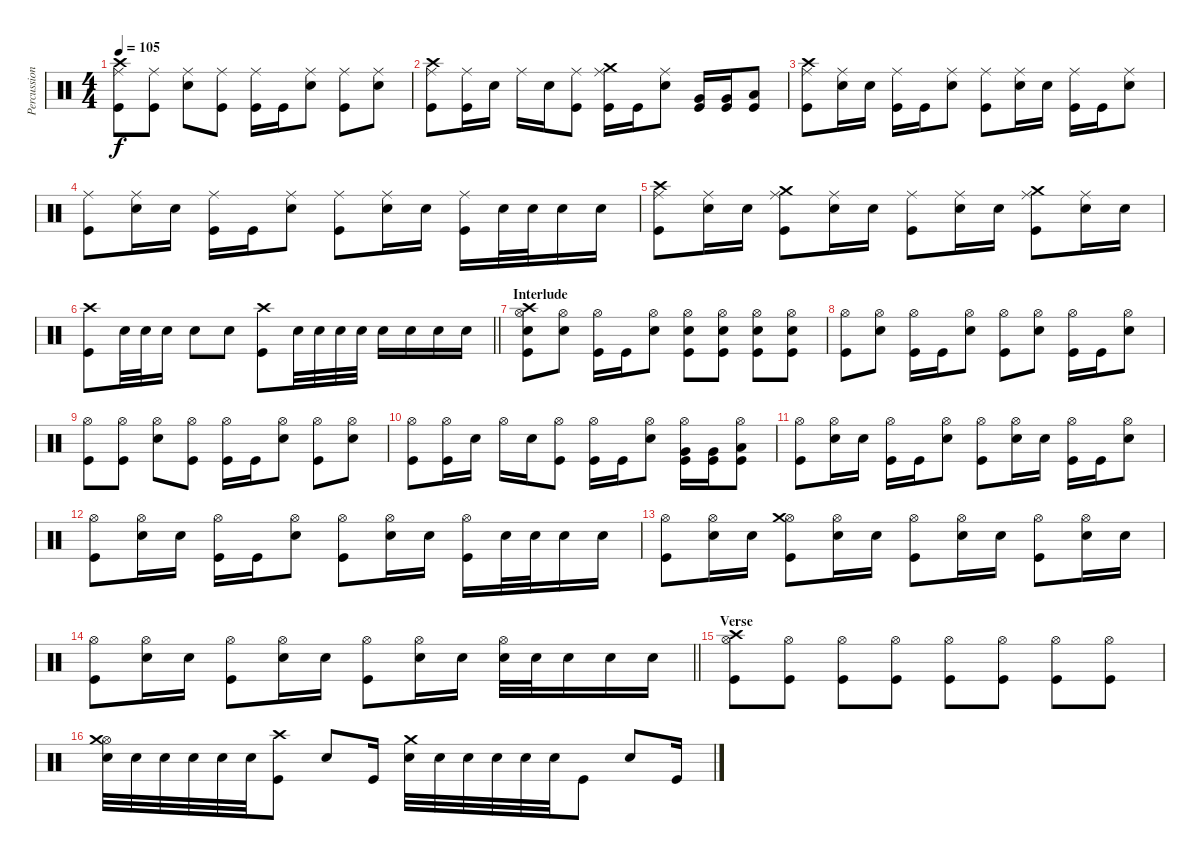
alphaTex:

\track ("Percussion" "Percussion") {instrument percussion}
\staff {score}
\articulation defaults
\ts (4 4)
\tempo 105
\clef neutral
\ks c
("Kick (hit)" "Ride (middle)" "Crash high (hit)").8{dy f} ("Kick (hit)" "Ride (middle)").8 ("Electric Snare (hit)" "Ride (middle)").8 ("Kick (hit)" "Ride (middle)").8 ("Kick (hit)" "Ride (middle)").16 "Kick (hit)".16 ("Electric Snare (hit)" "Ride (middle)").8 ("Kick (hit)" "Ride (middle)").8 ("Electric Snare (hit)" "Ride (middle)").8 |
("Kick (hit)" "Ride (middle)" "Crash high (hit)").8 ("Kick (hit)" "Ride (middle)").16 "Electric Snare (hit)".16 "Ride (middle)".16 "Electric Snare (hit)".16 ("Kick (hit)" "Ride (middle)").8 ("Kick (hit)" "Ride (middle)" "Crash medium (hit)").16 "Kick (hit)".16 ("Electric Snare (hit)" "Ride (middle)").8 ("Kick (hit)" "Very Low Tom (hit)").16 ("Kick (hit)" "Very Low Tom (hit)").16 ("Kick (hit)" "Low Floor Tom (hit)").8 |
("Kick (hit)" "Ride (middle)" "Crash high (hit)").8 ("Electric Snare (hit)" "Ride (middle)").16 "Electric Snare (hit)".16 ("Kick (hit)" "Ride (middle)").16 "Kick (hit)".16 ("Electric Snare (hit)" "Ride (middle)").8 ("Kick (hit)" "Ride (middle)").8 ("Electric Snare (hit)" "Ride (middle)").16 "Electric Snare (hit)".16 ("Kick (hit)" "Ride (middle)").16 "Kick (hit)".16 ("Electric Snare (hit)" "Ride (middle)").8 |
("Kick (hit)" "Ride (middle)").8 ("Electric Snare (hit)" "Ride (middle)").16 "Electric Snare (hit)".16 ("Kick (hit)" "Ride (middle)").16 "Kick (hit)".16 ("Electric Snare (hit)" "Ride (middle)").8 ("Kick (hit)" "Ride (middle)").8 ("Electric Snare (hit)" "Ride (middle)").16 "Electric Snare (hit)".16 ("Kick (hit)" "Ride (middle)").16 "Electric Snare (hit)".32 "Electric Snare (hit)".32 "Electric Snare (hit)".16 "Electric Snare (hit)".16 |
("Kick (hit)" "Ride (middle)" "Crash high (hit)").8 ("Electric Snare (hit)" "Ride (middle)").16 "Electric Snare (hit)".16 ("Kick (hit)" "Ride (middle)" "Crash medium (hit)").8 ("Electric Snare (hit)" "Ride (middle)").16 "Electric Snare (hit)".16 ("Kick (hit)" "Ride (middle)").8 ("Electric Snare (hit)" "Ride (middle)").16 "Electric Snare (hit)".16 ("Kick (hit)" "Ride (middle)" "Crash medium (hit)").8 ("Electric Snare (hit)" "Ride (middle)").16 "Electric Snare (hit)".16 |
\barLineRight lightlight
("Kick (hit)" "Crash high (hit)").8 "Electric Snare (hit)".32 "Electric Snare (hit)".32 "Electric Snare (hit)".16 "Electric Snare (hit)".8 "Electric Snare (hit)".8 ("Kick (hit)" "Crash high (hit)").8 "Electric Snare (hit)".32 "Electric Snare (hit)".32 "Electric Snare (hit)".32 "Electric Snare (hit)".32 "Electric Snare (hit)".16 "Electric Snare (hit)".16 "Electric Snare (hit)".16 "Electric Snare (hit)".16 |
\section ("" "Interlude")
("Hi-Hat (open)" "Electric Snare (hit)" "Kick (hit)" "Crash high (hit)").8 ("Hi-Hat (open)" "Electric Snare (hit)").8 ("Hi-Hat (open)" "Kick (hit)").16 "Kick (hit)".16 ("Hi-Hat (open)" "Electric Snare (hit)").8 ("Hi-Hat (open)" "Electric Snare (hit)" "Kick (hit)").8 ("Hi-Hat (open)" "Electric Snare (hit)" "Kick (hit)").8 ("Hi-Hat (open)" "Electric Snare (hit)" "Kick (hit)").8 ("Hi-Hat (open)" "Electric Snare (hit)" "Kick (hit)").8 |
("Hi-Hat (open)" "Kick (hit)").8 ("Hi-Hat (open)" "Electric Snare (hit)").8 ("Hi-Hat (open)" "Kick (hit)").16 "Kick (hit)".16 ("Hi-Hat (open)" "Electric Snare (hit)").8 ("Hi-Hat (open)" "Kick (hit)").8 ("Hi-Hat (open)" "Electric Snare (hit)").8 ("Hi-Hat (open)" "Kick (hit)").16 "Kick (hit)".16 ("Hi-Hat (open)" "Electric Snare (hit)").8 |
("Hi-Hat (open)" "Kick (hit)").8 ("Hi-Hat (open)" "Kick (hit)").8 ("Hi-Hat (open)" "Electric Snare (hit)").8 ("Hi-Hat (open)" "Kick (hit)").8 ("Hi-Hat (open)" "Kick (hit)").16 "Kick (hit)".16 ("Hi-Hat (open)" "Electric Snare (hit)").8 ("Hi-Hat (open)" "Kick (hit)").8 ("Hi-Hat (open)" "Electric Snare (hit)").8 |
("Hi-Hat (open)" "Kick (hit)").8 ("Hi-Hat (open)" "Kick (hit)").16 "Electric Snare (hit)".16 "Hi-Hat (open)".16 "Electric Snare (hit)".16 ("Hi-Hat (open)" "Kick (hit)").8 ("Hi-Hat (open)" "Kick (hit)").16 "Kick (hit)".16 ("Hi-Hat (open)" "Electric Snare (hit)").8 ("Hi-Hat (open)" "Kick (hit)" "Very Low Tom (hit)").16 ("Kick (hit)" "Very Low Tom (hit)").16 ("Hi-Hat (open)" "Kick (hit)" "Low Floor Tom (hit)").8 |
("Hi-Hat (open)" "Kick (hit)").8 ("Hi-Hat (open)" "Electric Snare (hit)").16 "Electric Snare (hit)".16 ("Hi-Hat (open)" "Kick (hit)").16 "Kick (hit)".16 ("Hi-Hat (open)" "Electric Snare (hit)").8 ("Hi-Hat (open)" "Kick (hit)").8 ("Hi-Hat (open)" "Electric Snare (hit)").16 "Electric Snare (hit)".16 ("Hi-Hat (open)" "Kick (hit)").16 "Kick (hit)".16 ("Hi-Hat (open)" "Electric Snare (hit)").8 |
("Hi-Hat (open)" "Kick (hit)").8 ("Hi-Hat (open)" "Electric Snare (hit)").16 "Electric Snare (hit)".16 ("Hi-Hat (open)" "Kick (hit)").16 "Kick (hit)".16 ("Hi-Hat (open)" "Electric Snare (hit)").8 ("Hi-Hat (open)" "Kick (hit)").8 ("Hi-Hat (open)" "Electric Snare (hit)").16 "Electric Snare (hit)".16 ("Hi-Hat (open)" "Kick (hit)").16 "Electric Snare (hit)".32 "Electric Snare (hit)".32 "Electric Snare (hit)".16 "Electric Snare (hit)".16 |
("Hi-Hat (open)" "Kick (hit)").8 ("Hi-Hat (open)" "Electric Snare (hit)").16 "Electric Snare (hit)".16 ("Hi-Hat (open)" "Kick (hit)" "Crash medium (hit)").8 ("Hi-Hat (open)" "Electric Snare (hit)").16 "Electric Snare (hit)".16 ("Hi-Hat (open)" "Kick (hit)").8 ("Hi-Hat (open)" "Electric Snare (hit)").16 "Electric Snare (hit)".16 ("Hi-Hat (open)" "Kick (hit)").8 ("Hi-Hat (open)" "Electric Snare (hit)").16 "Electric Snare (hit)".16 |
\barLineRight lightlight
("Hi-Hat (open)" "Kick (hit)").8 ("Hi-Hat (open)" "Electric Snare (hit)").16 "Electric Snare (hit)".16 ("Hi-Hat (open)" "Kick (hit)").8 ("Hi-Hat (open)" "Electric Snare (hit)").16 "Electric Snare (hit)".16 ("Hi-Hat (open)" "Kick (hit)").8 ("Hi-Hat (open)" "Electric Snare (hit)").16 "Electric Snare (hit)".16 ("Hi-Hat (open)" "Electric Snare (hit)").32 "Electric Snare (hit)".32 "Electric Snare (hit)".16 "Electric Snare (hit)".16 "Electric Snare (hit)".16 |
\section ("" "Verse")
("Hi-Hat (open)" "Kick (hit)" "Crash high (hit)").8 ("Hi-Hat (open)" "Kick (hit)").8 ("Hi-Hat (open)" "Kick (hit)").8 ("Hi-Hat (open)" "Kick (hit)").8 ("Hi-Hat (open)" "Kick (hit)").8 ("Hi-Hat (open)" "Kick (hit)").8 ("Hi-Hat (open)" "Kick (hit)").8 ("Hi-Hat (open)" "Kick (hit)").8 |
("Hi-Hat (open)" "Electric Snare (hit)" "Crash medium (hit)").32 "Electric Snare (hit)".32 "Electric Snare (hit)".32 "Electric Snare (hit)".32 "Electric Snare (hit)".32 "Electric Snare (hit)".32 ("Kick (hit)" "Crash high (hit)").8 "Electric Snare (hit)".8 "Kick (hit)".16 ("Electric Snare (hit)" "Crash medium (hit)").32 "Electric Snare (hit)".32 "Electric Snare (hit)".32 "Electric Snare (hit)".32 "Electric Snare (hit)".32 "Electric Snare (hit)".32 "Kick (hit)".8 "Electric Snare (hit)".8 "Kick (hit)".16
